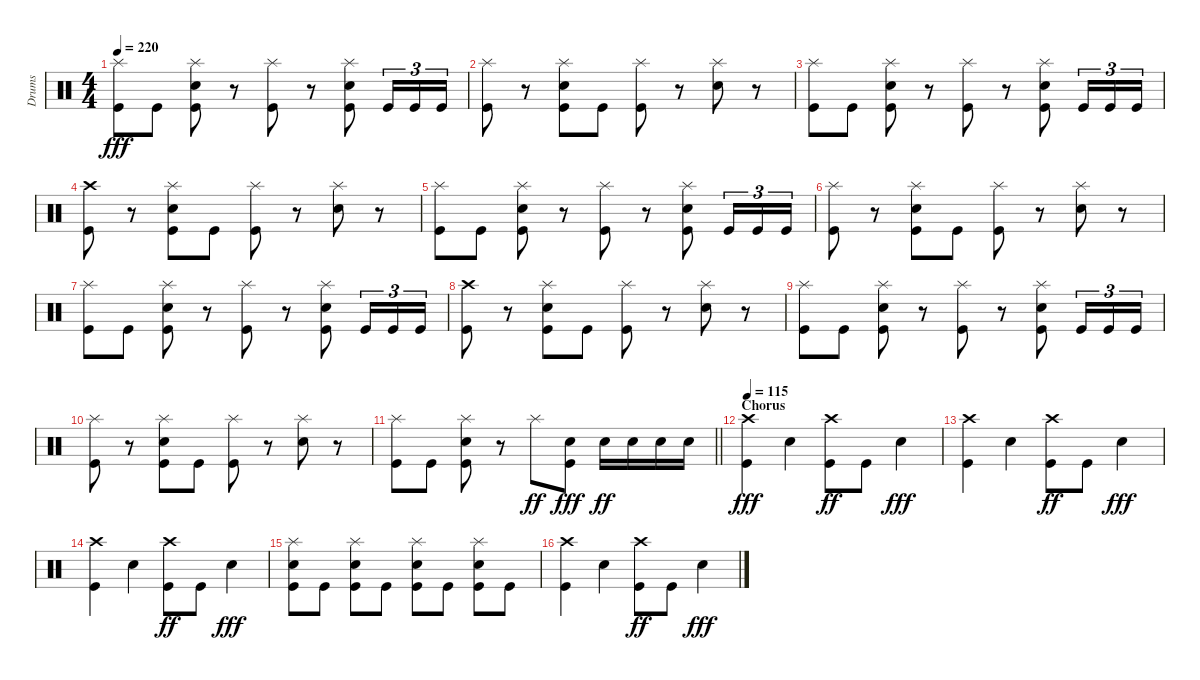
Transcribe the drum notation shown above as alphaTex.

\track ("Drums" "Drums") {instrument percussion}
\staff {score}
\articulation defaults
\ts (4 4)
\tempo 220
\clef neutral
\ks c
("Splash (hit)" "Kick (hit)").8{dy fff} "Kick (hit)".8 ("Splash (hit)" "Electric Snare (hit)" "Kick (hit)").8 r.8 ("Splash (hit)" "Kick (hit)").8 r.8 ("Splash (hit)" "Electric Snare (hit)" "Kick (hit)").8 "Kick (hit)".16{tu (3 2)} "Kick (hit)".16{tu (3 2)} "Kick (hit)".16{tu (3 2)} |
("Splash (hit)" "Kick (hit)").8 r.8 ("Splash (hit)" "Electric Snare (hit)" "Kick (hit)").8 "Kick (hit)".8 ("Splash (hit)" "Kick (hit)").8 r.8 ("Splash (hit)" "Electric Snare (hit)").8 r.8 |
("Splash (hit)" "Kick (hit)").8 "Kick (hit)".8 ("Splash (hit)" "Electric Snare (hit)" "Kick (hit)").8 r.8 ("Splash (hit)" "Kick (hit)").8 r.8 ("Splash (hit)" "Electric Snare (hit)" "Kick (hit)").8 "Kick (hit)".16{tu (3 2)} "Kick (hit)".16{tu (3 2)} "Kick (hit)".16{tu (3 2)} |
("Crash high (hit)" "Kick (hit)").8 r.8 ("Splash (hit)" "Electric Snare (hit)" "Kick (hit)").8 "Kick (hit)".8 ("Splash (hit)" "Kick (hit)").8 r.8 ("Splash (hit)" "Electric Snare (hit)").8 r.8 |
("Splash (hit)" "Kick (hit)").8 "Kick (hit)".8 ("Splash (hit)" "Electric Snare (hit)" "Kick (hit)").8 r.8 ("Splash (hit)" "Kick (hit)").8 r.8 ("Splash (hit)" "Electric Snare (hit)" "Kick (hit)").8 "Kick (hit)".16{tu (3 2)} "Kick (hit)".16{tu (3 2)} "Kick (hit)".16{tu (3 2)} |
("Splash (hit)" "Kick (hit)").8 r.8 ("Splash (hit)" "Electric Snare (hit)" "Kick (hit)").8 "Kick (hit)".8 ("Splash (hit)" "Kick (hit)").8 r.8 ("Splash (hit)" "Electric Snare (hit)").8 r.8 |
("Splash (hit)" "Kick (hit)").8 "Kick (hit)".8 ("Splash (hit)" "Electric Snare (hit)" "Kick (hit)").8 r.8 ("Splash (hit)" "Kick (hit)").8 r.8 ("Splash (hit)" "Electric Snare (hit)" "Kick (hit)").8 "Kick (hit)".16{tu (3 2)} "Kick (hit)".16{tu (3 2)} "Kick (hit)".16{tu (3 2)} |
("Crash high (hit)" "Kick (hit)").8 r.8 ("Splash (hit)" "Electric Snare (hit)" "Kick (hit)").8 "Kick (hit)".8 ("Splash (hit)" "Kick (hit)").8 r.8 ("Splash (hit)" "Electric Snare (hit)").8 r.8 |
("Splash (hit)" "Kick (hit)").8 "Kick (hit)".8 ("Splash (hit)" "Electric Snare (hit)" "Kick (hit)").8 r.8 ("Splash (hit)" "Kick (hit)").8 r.8 ("Splash (hit)" "Electric Snare (hit)" "Kick (hit)").8 "Kick (hit)".16{tu (3 2)} "Kick (hit)".16{tu (3 2)} "Kick (hit)".16{tu (3 2)} |
("Splash (hit)" "Kick (hit)").8 r.8 ("Splash (hit)" "Electric Snare (hit)" "Kick (hit)").8 "Kick (hit)".8 ("Splash (hit)" "Kick (hit)").8 r.8 ("Splash (hit)" "Electric Snare (hit)").8 r.8 |
\barLineRight lightlight
("Splash (hit)" "Kick (hit)").8 "Kick (hit)".8 ("Splash (hit)" "Electric Snare (hit)" "Kick (hit)").8 r.8 "Splash (hit)".8{dy ff} ("Electric Snare (hit)" "Kick (hit)").8{dy fff} "Electric Snare (hit)".16{dy ff} "Electric Snare (hit)".16 "Electric Snare (hit)".16 "Electric Snare (hit)".16 |
\section ("" "Chorus")
\tempo 115
("Crash high (hit)" "Kick (hit)").4{dy fff} "Electric Snare (hit)".4 ("Crash high (hit)" "Kick (hit)").8{dy ff} "Kick (hit)".8 "Electric Snare (hit)".4{dy fff} |
("Crash high (hit)" "Kick (hit)").4 "Electric Snare (hit)".4 ("Crash high (hit)" "Kick (hit)").8{dy ff} "Kick (hit)".8 "Electric Snare (hit)".4{dy fff} |
("Crash high (hit)" "Kick (hit)").4 "Electric Snare (hit)".4 ("Crash high (hit)" "Kick (hit)").8{dy ff} "Kick (hit)".8 "Electric Snare (hit)".4{dy fff} |
("Splash (hit)" "Electric Snare (hit)" "Kick (hit)").8 "Kick (hit)".8 ("Splash (hit)" "Electric Snare (hit)" "Kick (hit)").8 "Kick (hit)".8 ("Splash (hit)" "Electric Snare (hit)" "Kick (hit)").8 "Kick (hit)".8 ("Splash (hit)" "Electric Snare (hit)" "Kick (hit)").8 "Kick (hit)".8 |
("Crash high (hit)" "Kick (hit)").4 "Electric Snare (hit)".4 ("Crash high (hit)" "Kick (hit)").8{dy ff} "Kick (hit)".8 "Electric Snare (hit)".4{dy fff}
